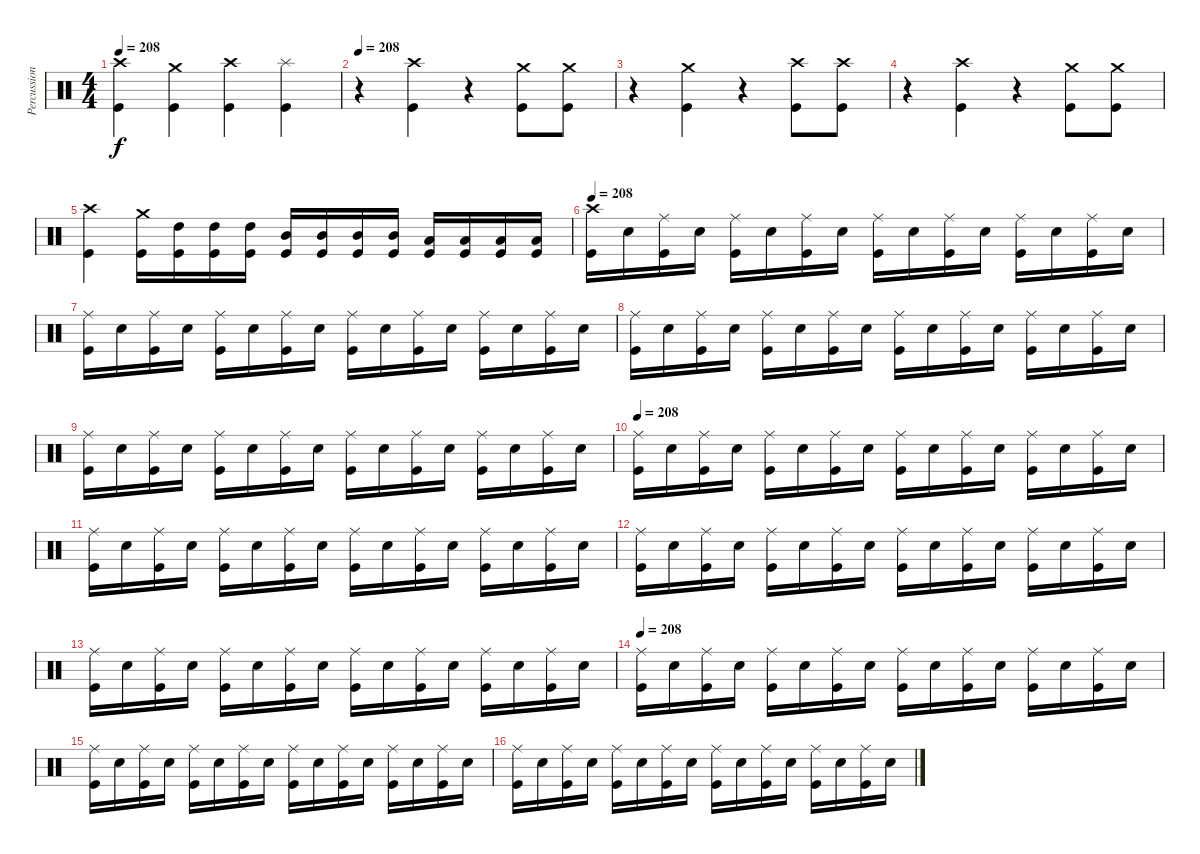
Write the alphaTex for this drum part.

\track ("Percussion" "Percussion") {instrument percussion}
\staff {score}
\articulation defaults
\ts (4 4)
\tempo 208
\clef neutral
\ks c
("Crash high (hit)" "Kick (hit)").4{dy f} ("Crash medium (hit)" "Kick (hit)").4 ("Crash high (hit)" "Kick (hit)").4 ("Splash (hit)" "Kick (hit)").4 |
\tempo 208
r.4 ("Crash high (hit)" "Kick (hit)").4 r.4 ("Crash medium (hit)" "Kick (hit)").8 ("Crash medium (hit)" "Kick (hit)").8 |
r.4 ("Crash medium (hit)" "Kick (hit)").4 r.4 ("Crash high (hit)" "Kick (hit)").8 ("Crash high (hit)" "Kick (hit)").8 |
r.4 ("Crash high (hit)" "Kick (hit)").4 r.4 ("Crash medium (hit)" "Kick (hit)").8 ("Crash medium (hit)" "Kick (hit)").8 |
("Crash high (hit)" "Kick (hit)").4 ("Crash medium (hit)" "Kick (hit)").16 ("High Tom (hit)" "Kick (hit)").16 ("High Tom (hit)" "Kick (hit)").16 ("High Tom (hit)" "Kick (hit)").16 ("Mid Tom (hit)" "Kick (hit)").16 ("Mid Tom (hit)" "Kick (hit)").16 ("Mid Tom (hit)" "Kick (hit)").16 ("Mid Tom (hit)" "Kick (hit)").16 ("Low Tom (hit)" "Kick (hit)").16 ("Low Tom (hit)" "Kick (hit)").16 ("Low Tom (hit)" "Kick (hit)").16 ("Low Tom (hit)" "Kick (hit)").16 |
\tempo 208
("Crash high (hit)" "Kick (hit)").16 "Electric Snare (hit)".16 ("Ride (middle)" "Kick (hit)").16 "Electric Snare (hit)".16 ("Ride (middle)" "Kick (hit)").16 "Electric Snare (hit)".16 ("Ride (middle)" "Kick (hit)").16 "Electric Snare (hit)".16 ("Ride (middle)" "Kick (hit)").16 "Electric Snare (hit)".16 ("Ride (middle)" "Kick (hit)").16 "Electric Snare (hit)".16 ("Ride (middle)" "Kick (hit)").16 "Electric Snare (hit)".16 ("Ride (middle)" "Kick (hit)").16 "Electric Snare (hit)".16 |
("Ride (middle)" "Kick (hit)").16 "Electric Snare (hit)".16 ("Ride (middle)" "Kick (hit)").16 "Electric Snare (hit)".16 ("Ride (middle)" "Kick (hit)").16 "Electric Snare (hit)".16 ("Ride (middle)" "Kick (hit)").16 "Electric Snare (hit)".16 ("Ride (middle)" "Kick (hit)").16 "Electric Snare (hit)".16 ("Ride (middle)" "Kick (hit)").16 "Electric Snare (hit)".16 ("Ride (middle)" "Kick (hit)").16 "Electric Snare (hit)".16 ("Ride (middle)" "Kick (hit)").16 "Electric Snare (hit)".16 |
("Ride (middle)" "Kick (hit)").16 "Electric Snare (hit)".16 ("Ride (middle)" "Kick (hit)").16 "Electric Snare (hit)".16 ("Ride (middle)" "Kick (hit)").16 "Electric Snare (hit)".16 ("Ride (middle)" "Kick (hit)").16 "Electric Snare (hit)".16 ("Ride (middle)" "Kick (hit)").16 "Electric Snare (hit)".16 ("Ride (middle)" "Kick (hit)").16 "Electric Snare (hit)".16 ("Ride (middle)" "Kick (hit)").16 "Electric Snare (hit)".16 ("Ride (middle)" "Kick (hit)").16 "Electric Snare (hit)".16 |
("Ride (middle)" "Kick (hit)").16 "Electric Snare (hit)".16 ("Ride (middle)" "Kick (hit)").16 "Electric Snare (hit)".16 ("Ride (middle)" "Kick (hit)").16 "Electric Snare (hit)".16 ("Ride (middle)" "Kick (hit)").16 "Electric Snare (hit)".16 ("Ride (middle)" "Kick (hit)").16 "Electric Snare (hit)".16 ("Ride (middle)" "Kick (hit)").16 "Electric Snare (hit)".16 ("Ride (middle)" "Kick (hit)").16 "Electric Snare (hit)".16 ("Ride (middle)" "Kick (hit)").16 "Electric Snare (hit)".16 |
\tempo 208
("Ride (middle)" "Kick (hit)").16 "Electric Snare (hit)".16 ("Ride (middle)" "Kick (hit)").16 "Electric Snare (hit)".16 ("Ride (middle)" "Kick (hit)").16 "Electric Snare (hit)".16 ("Ride (middle)" "Kick (hit)").16 "Electric Snare (hit)".16 ("Ride (middle)" "Kick (hit)").16 "Electric Snare (hit)".16 ("Ride (middle)" "Kick (hit)").16 "Electric Snare (hit)".16 ("Ride (middle)" "Kick (hit)").16 "Electric Snare (hit)".16 ("Ride (middle)" "Kick (hit)").16 "Electric Snare (hit)".16 |
("Ride (middle)" "Kick (hit)").16 "Electric Snare (hit)".16 ("Ride (middle)" "Kick (hit)").16 "Electric Snare (hit)".16 ("Ride (middle)" "Kick (hit)").16 "Electric Snare (hit)".16 ("Ride (middle)" "Kick (hit)").16 "Electric Snare (hit)".16 ("Ride (middle)" "Kick (hit)").16 "Electric Snare (hit)".16 ("Ride (middle)" "Kick (hit)").16 "Electric Snare (hit)".16 ("Ride (middle)" "Kick (hit)").16 "Electric Snare (hit)".16 ("Ride (middle)" "Kick (hit)").16 "Electric Snare (hit)".16 |
("Ride (middle)" "Kick (hit)").16 "Electric Snare (hit)".16 ("Ride (middle)" "Kick (hit)").16 "Electric Snare (hit)".16 ("Ride (middle)" "Kick (hit)").16 "Electric Snare (hit)".16 ("Ride (middle)" "Kick (hit)").16 "Electric Snare (hit)".16 ("Ride (middle)" "Kick (hit)").16 "Electric Snare (hit)".16 ("Ride (middle)" "Kick (hit)").16 "Electric Snare (hit)".16 ("Ride (middle)" "Kick (hit)").16 "Electric Snare (hit)".16 ("Ride (middle)" "Kick (hit)").16 "Electric Snare (hit)".16 |
("Ride (middle)" "Kick (hit)").16 "Electric Snare (hit)".16 ("Ride (middle)" "Kick (hit)").16 "Electric Snare (hit)".16 ("Ride (middle)" "Kick (hit)").16 "Electric Snare (hit)".16 ("Ride (middle)" "Kick (hit)").16 "Electric Snare (hit)".16 ("Ride (middle)" "Kick (hit)").16 "Electric Snare (hit)".16 ("Ride (middle)" "Kick (hit)").16 "Electric Snare (hit)".16 ("Ride (middle)" "Kick (hit)").16 "Electric Snare (hit)".16 ("Ride (middle)" "Kick (hit)").16 "Electric Snare (hit)".16 |
\tempo 208
("Ride (middle)" "Kick (hit)").16 "Electric Snare (hit)".16 ("Ride (middle)" "Kick (hit)").16 "Electric Snare (hit)".16 ("Ride (middle)" "Kick (hit)").16 "Electric Snare (hit)".16 ("Ride (middle)" "Kick (hit)").16 "Electric Snare (hit)".16 ("Ride (middle)" "Kick (hit)").16 "Electric Snare (hit)".16 ("Ride (middle)" "Kick (hit)").16 "Electric Snare (hit)".16 ("Ride (middle)" "Kick (hit)").16 "Electric Snare (hit)".16 ("Ride (middle)" "Kick (hit)").16 "Electric Snare (hit)".16 |
("Ride (middle)" "Kick (hit)").16 "Electric Snare (hit)".16 ("Ride (middle)" "Kick (hit)").16 "Electric Snare (hit)".16 ("Ride (middle)" "Kick (hit)").16 "Electric Snare (hit)".16 ("Ride (middle)" "Kick (hit)").16 "Electric Snare (hit)".16 ("Ride (middle)" "Kick (hit)").16 "Electric Snare (hit)".16 ("Ride (middle)" "Kick (hit)").16 "Electric Snare (hit)".16 ("Ride (middle)" "Kick (hit)").16 "Electric Snare (hit)".16 ("Ride (middle)" "Kick (hit)").16 "Electric Snare (hit)".16 |
("Ride (middle)" "Kick (hit)").16 "Electric Snare (hit)".16 ("Ride (middle)" "Kick (hit)").16 "Electric Snare (hit)".16 ("Ride (middle)" "Kick (hit)").16 "Electric Snare (hit)".16 ("Ride (middle)" "Kick (hit)").16 "Electric Snare (hit)".16 ("Ride (middle)" "Kick (hit)").16 "Electric Snare (hit)".16 ("Ride (middle)" "Kick (hit)").16 "Electric Snare (hit)".16 ("Ride (middle)" "Kick (hit)").16 "Electric Snare (hit)".16 ("Ride (middle)" "Kick (hit)").16 "Electric Snare (hit)".16
